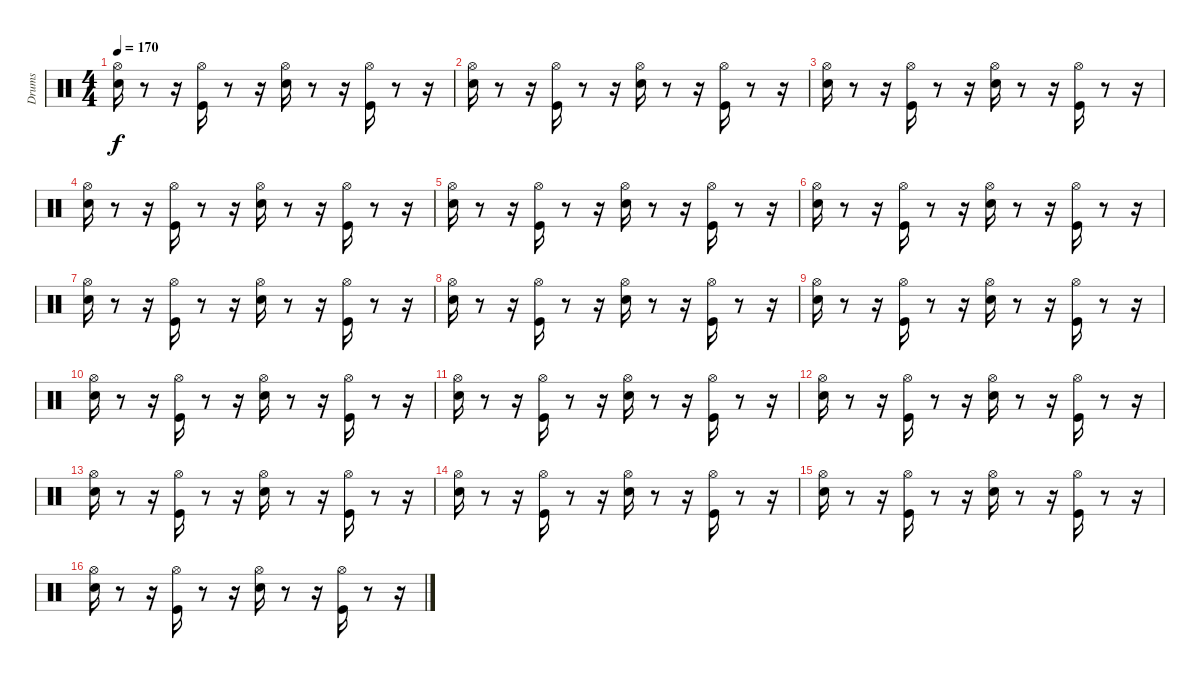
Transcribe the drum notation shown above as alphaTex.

\track ("Drums" "Drums") {instrument percussion}
\staff {score}
\articulation defaults
\ts (4 4)
\tempo 170
\clef neutral
\ks c
("Snare (hit) 2" "Hi-Hat (open)").16{dy f} r.8 r.16 ("Kick (hit)" "Hi-Hat (open)").16 r.8 r.16 ("Snare (hit) 2" "Hi-Hat (open)").16 r.8 r.16 ("Kick (hit)" "Hi-Hat (open)").16 r.8 r.16 |
("Snare (hit) 2" "Hi-Hat (open)").16 r.8 r.16 ("Kick (hit)" "Hi-Hat (open)").16 r.8 r.16 ("Snare (hit) 2" "Hi-Hat (open)").16 r.8 r.16 ("Kick (hit)" "Hi-Hat (open)").16 r.8 r.16 |
("Snare (hit) 2" "Hi-Hat (open)").16 r.8 r.16 ("Kick (hit)" "Hi-Hat (open)").16 r.8 r.16 ("Snare (hit) 2" "Hi-Hat (open)").16 r.8 r.16 ("Kick (hit)" "Hi-Hat (open)").16 r.8 r.16 |
("Snare (hit) 2" "Hi-Hat (open)").16 r.8 r.16 ("Kick (hit)" "Hi-Hat (open)").16 r.8 r.16 ("Snare (hit) 2" "Hi-Hat (open)").16 r.8 r.16 ("Kick (hit)" "Hi-Hat (open)").16 r.8 r.16 |
("Snare (hit) 2" "Hi-Hat (open)").16 r.8 r.16 ("Kick (hit)" "Hi-Hat (open)").16 r.8 r.16 ("Snare (hit) 2" "Hi-Hat (open)").16 r.8 r.16 ("Kick (hit)" "Hi-Hat (open)").16 r.8 r.16 |
("Snare (hit) 2" "Hi-Hat (open)").16 r.8 r.16 ("Kick (hit)" "Hi-Hat (open)").16 r.8 r.16 ("Snare (hit) 2" "Hi-Hat (open)").16 r.8 r.16 ("Kick (hit)" "Hi-Hat (open)").16 r.8 r.16 |
("Snare (hit) 2" "Hi-Hat (open)").16 r.8 r.16 ("Kick (hit)" "Hi-Hat (open)").16 r.8 r.16 ("Snare (hit) 2" "Hi-Hat (open)").16 r.8 r.16 ("Kick (hit)" "Hi-Hat (open)").16 r.8 r.16 |
("Snare (hit) 2" "Hi-Hat (open)").16 r.8 r.16 ("Kick (hit)" "Hi-Hat (open)").16 r.8 r.16 ("Snare (hit) 2" "Hi-Hat (open)").16 r.8 r.16 ("Kick (hit)" "Hi-Hat (open)").16 r.8 r.16 |
("Snare (hit) 2" "Hi-Hat (open)").16 r.8 r.16 ("Kick (hit)" "Hi-Hat (open)").16 r.8 r.16 ("Snare (hit) 2" "Hi-Hat (open)").16 r.8 r.16 ("Kick (hit)" "Hi-Hat (open)").16 r.8 r.16 |
("Snare (hit) 2" "Hi-Hat (open)").16 r.8 r.16 ("Kick (hit)" "Hi-Hat (open)").16 r.8 r.16 ("Snare (hit) 2" "Hi-Hat (open)").16 r.8 r.16 ("Kick (hit)" "Hi-Hat (open)").16 r.8 r.16 |
("Snare (hit) 2" "Hi-Hat (open)").16 r.8 r.16 ("Kick (hit)" "Hi-Hat (open)").16 r.8 r.16 ("Snare (hit) 2" "Hi-Hat (open)").16 r.8 r.16 ("Kick (hit)" "Hi-Hat (open)").16 r.8 r.16 |
("Snare (hit) 2" "Hi-Hat (open)").16 r.8 r.16 ("Kick (hit)" "Hi-Hat (open)").16 r.8 r.16 ("Snare (hit) 2" "Hi-Hat (open)").16 r.8 r.16 ("Kick (hit)" "Hi-Hat (open)").16 r.8 r.16 |
("Snare (hit) 2" "Hi-Hat (open)").16 r.8 r.16 ("Kick (hit)" "Hi-Hat (open)").16 r.8 r.16 ("Snare (hit) 2" "Hi-Hat (open)").16 r.8 r.16 ("Kick (hit)" "Hi-Hat (open)").16 r.8 r.16 |
("Snare (hit) 2" "Hi-Hat (open)").16 r.8 r.16 ("Kick (hit)" "Hi-Hat (open)").16 r.8 r.16 ("Snare (hit) 2" "Hi-Hat (open)").16 r.8 r.16 ("Kick (hit)" "Hi-Hat (open)").16 r.8 r.16 |
("Snare (hit) 2" "Hi-Hat (open)").16 r.8 r.16 ("Kick (hit)" "Hi-Hat (open)").16 r.8 r.16 ("Snare (hit) 2" "Hi-Hat (open)").16 r.8 r.16 ("Kick (hit)" "Hi-Hat (open)").16 r.8 r.16 |
("Snare (hit) 2" "Hi-Hat (open)").16 r.8 r.16 ("Kick (hit)" "Hi-Hat (open)").16 r.8 r.16 ("Snare (hit) 2" "Hi-Hat (open)").16 r.8 r.16 ("Kick (hit)" "Hi-Hat (open)").16 r.8 r.16
